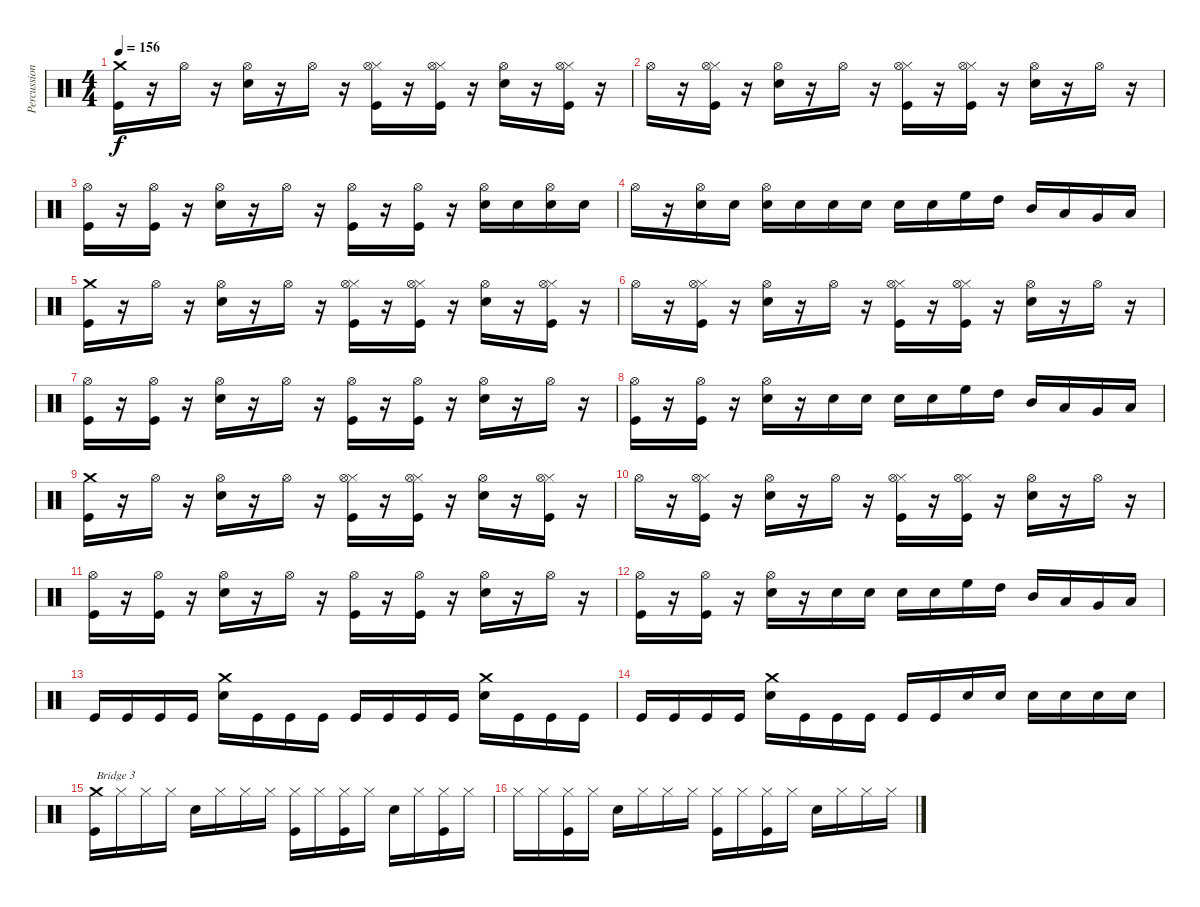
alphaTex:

\track ("Percussion" "Percussion") {instrument percussion}
\staff {score}
\articulation defaults
\ts (4 4)
\tempo 156
\clef neutral
\ks c
("Kick (hit)" "Crash medium (hit)").16{dy f} r.16 "Hi-Hat (open)".16 r.16 ("Hi-Hat (open)" "Snare (hit) 2").16 r.16 "Hi-Hat (open)".16 r.16 ("Kick (hit)" "Hi-Hat (closed)" "Hi-Hat (open)").16 r.16 ("Kick (hit)" "Hi-Hat (closed)" "Hi-Hat (open)").16 r.16 ("Hi-Hat (open)" "Snare (hit) 2").16 r.16 ("Kick (hit)" "Hi-Hat (closed)" "Hi-Hat (open)").16 r.16 |
"Hi-Hat (open)".16 r.16 ("Kick (hit)" "Hi-Hat (closed)" "Hi-Hat (open)").16 r.16 ("Hi-Hat (open)" "Snare (hit) 2").16 r.16 "Hi-Hat (open)".16 r.16 ("Kick (hit)" "Hi-Hat (closed)" "Hi-Hat (open)").16 r.16 ("Kick (hit)" "Hi-Hat (closed)" "Hi-Hat (open)").16 r.16 ("Hi-Hat (open)" "Snare (hit) 2").16 r.16 "Hi-Hat (open)".16 r.16 |
("Kick (hit)" "Hi-Hat (open)").16 r.16 ("Kick (hit)" "Hi-Hat (open)").16 r.16 ("Snare (hit) 2" "Hi-Hat (open)").16 r.16 "Hi-Hat (open)".16 r.16 ("Kick (hit)" "Hi-Hat (open)").16 r.16 ("Kick (hit)" "Hi-Hat (open)").16 r.16 ("Snare (hit) 2" "Hi-Hat (open)").16 "Snare (hit) 2".16 ("Snare (hit) 2" "Hi-Hat (open)").16 "Snare (hit) 2".16 |
"Hi-Hat (open)".16 r.16 ("Snare (hit) 2" "Hi-Hat (open)").16 "Snare (hit) 2".16 ("Snare (hit) 2" "Hi-Hat (open)").16 "Snare (hit) 2".16 "Snare (hit) 2".16 "Snare (hit) 2".16 "Snare (hit) 2".16 "Snare (hit) 2".16 "High Floor Tom (hit)".16 "High Tom (hit)".16 "Mid Tom (hit)".16 "Low Tom (hit)".16 "Very Low Tom (hit)".16 "Low Floor Tom (hit)".16 |
("Kick (hit)" "Crash medium (hit)").16 r.16 "Hi-Hat (open)".16 r.16 ("Hi-Hat (open)" "Snare (hit) 2").16 r.16 "Hi-Hat (open)".16 r.16 ("Kick (hit)" "Hi-Hat (closed)" "Hi-Hat (open)").16 r.16 ("Kick (hit)" "Hi-Hat (closed)" "Hi-Hat (open)").16 r.16 ("Hi-Hat (open)" "Snare (hit) 2").16 r.16 ("Kick (hit)" "Hi-Hat (closed)" "Hi-Hat (open)").16 r.16 |
"Hi-Hat (open)".16 r.16 ("Kick (hit)" "Hi-Hat (closed)" "Hi-Hat (open)").16 r.16 ("Hi-Hat (open)" "Snare (hit) 2").16 r.16 "Hi-Hat (open)".16 r.16 ("Kick (hit)" "Hi-Hat (closed)" "Hi-Hat (open)").16 r.16 ("Kick (hit)" "Hi-Hat (closed)" "Hi-Hat (open)").16 r.16 ("Hi-Hat (open)" "Snare (hit) 2").16 r.16 "Hi-Hat (open)".16 r.16 |
("Kick (hit)" "Hi-Hat (open)").16 r.16 ("Kick (hit)" "Hi-Hat (open)").16 r.16 ("Snare (hit) 2" "Hi-Hat (open)").16 r.16 "Hi-Hat (open)".16 r.16 ("Kick (hit)" "Hi-Hat (open)").16 r.16 ("Kick (hit)" "Hi-Hat (open)").16 r.16 ("Snare (hit) 2" "Hi-Hat (open)").16 r.16 "Hi-Hat (open)".16 r.16 |
("Kick (hit)" "Hi-Hat (open)").16 r.16 ("Kick (hit)" "Hi-Hat (open)").16 r.16 ("Snare (hit) 2" "Hi-Hat (open)").16 r.16 "Snare (hit) 2".16 "Snare (hit) 2".16 "Snare (hit) 2".16 "Snare (hit) 2".16 "High Floor Tom (hit)".16 "High Tom (hit)".16 "Mid Tom (hit)".16 "Low Tom (hit)".16 "Very Low Tom (hit)".16 "Low Floor Tom (hit)".16 |
("Kick (hit)" "Crash medium (hit)").16 r.16 "Hi-Hat (open)".16 r.16 ("Hi-Hat (open)" "Snare (hit) 2").16 r.16 "Hi-Hat (open)".16 r.16 ("Kick (hit)" "Hi-Hat (closed)" "Hi-Hat (open)").16 r.16 ("Kick (hit)" "Hi-Hat (closed)" "Hi-Hat (open)").16 r.16 ("Hi-Hat (open)" "Snare (hit) 2").16 r.16 ("Kick (hit)" "Hi-Hat (closed)" "Hi-Hat (open)").16 r.16 |
"Hi-Hat (open)".16 r.16 ("Kick (hit)" "Hi-Hat (closed)" "Hi-Hat (open)").16 r.16 ("Hi-Hat (open)" "Snare (hit) 2").16 r.16 "Hi-Hat (open)".16 r.16 ("Kick (hit)" "Hi-Hat (closed)" "Hi-Hat (open)").16 r.16 ("Kick (hit)" "Hi-Hat (closed)" "Hi-Hat (open)").16 r.16 ("Hi-Hat (open)" "Snare (hit) 2").16 r.16 "Hi-Hat (open)".16 r.16 |
("Kick (hit)" "Hi-Hat (open)").16 r.16 ("Kick (hit)" "Hi-Hat (open)").16 r.16 ("Snare (hit) 2" "Hi-Hat (open)").16 r.16 "Hi-Hat (open)".16 r.16 ("Kick (hit)" "Hi-Hat (open)").16 r.16 ("Kick (hit)" "Hi-Hat (open)").16 r.16 ("Snare (hit) 2" "Hi-Hat (open)").16 r.16 "Hi-Hat (open)".16 r.16 |
("Kick (hit)" "Hi-Hat (open)").16 r.16 ("Kick (hit)" "Hi-Hat (open)").16 r.16 ("Snare (hit) 2" "Hi-Hat (open)").16 r.16 "Snare (hit) 2".16 "Snare (hit) 2".16 "Snare (hit) 2".16 "Snare (hit) 2".16 "High Floor Tom (hit)".16 "High Tom (hit)".16 "Mid Tom (hit)".16 "Low Tom (hit)".16 "Very Low Tom (hit)".16 "Low Floor Tom (hit)".16 |
"Kick (hit)".16 "Kick (hit)".16 "Kick (hit)".16 "Kick (hit)".16 ("Snare (hit) 2" "Crash medium (hit)").16 "Kick (hit)".16 "Kick (hit)".16 "Kick (hit)".16 "Kick (hit)".16 "Kick (hit)".16 "Kick (hit)".16 "Kick (hit)".16 ("Snare (hit) 2" "Crash medium (hit)").16 "Kick (hit)".16 "Kick (hit)".16 "Kick (hit)".16 |
"Kick (hit)".16 "Kick (hit)".16 "Kick (hit)".16 "Kick (hit)".16 ("Snare (hit) 2" "Crash medium (hit)").16 "Kick (hit)".16 "Kick (hit)".16 "Kick (hit)".16 "Kick (hit)".16 "Kick (hit)".16 "Snare (hit) 2".16 "Snare (hit) 2".16 "Snare (hit) 2".16 "Snare (hit) 2".16 "Snare (hit) 2".16 "Snare (hit) 2".16 |
("Kick (hit)" "Crash medium (hit)").16{txt "Bridge 3"} "Hi-Hat (closed)".16 "Hi-Hat (closed)".16 "Hi-Hat (closed)".16 "Snare (hit) 2".16 "Hi-Hat (closed)".16 "Hi-Hat (closed)".16 "Hi-Hat (closed)".16 ("Kick (hit)" "Hi-Hat (closed)").16 "Hi-Hat (closed)".16 ("Kick (hit)" "Hi-Hat (closed)").16 "Hi-Hat (closed)".16 "Snare (hit) 2".16 "Hi-Hat (closed)".16 ("Kick (hit)" "Hi-Hat (closed)").16 "Hi-Hat (closed)".16 |
"Hi-Hat (closed)".16 "Hi-Hat (closed)".16 ("Kick (hit)" "Hi-Hat (closed)").16 "Hi-Hat (closed)".16 "Snare (hit) 2".16 "Hi-Hat (closed)".16 "Hi-Hat (closed)".16 "Hi-Hat (closed)".16 ("Kick (hit)" "Hi-Hat (closed)").16 "Hi-Hat (closed)".16 ("Kick (hit)" "Hi-Hat (closed)").16 "Hi-Hat (closed)".16 "Snare (hit) 2".16 "Hi-Hat (closed)".16 "Hi-Hat (closed)".16 "Hi-Hat (closed)".16
